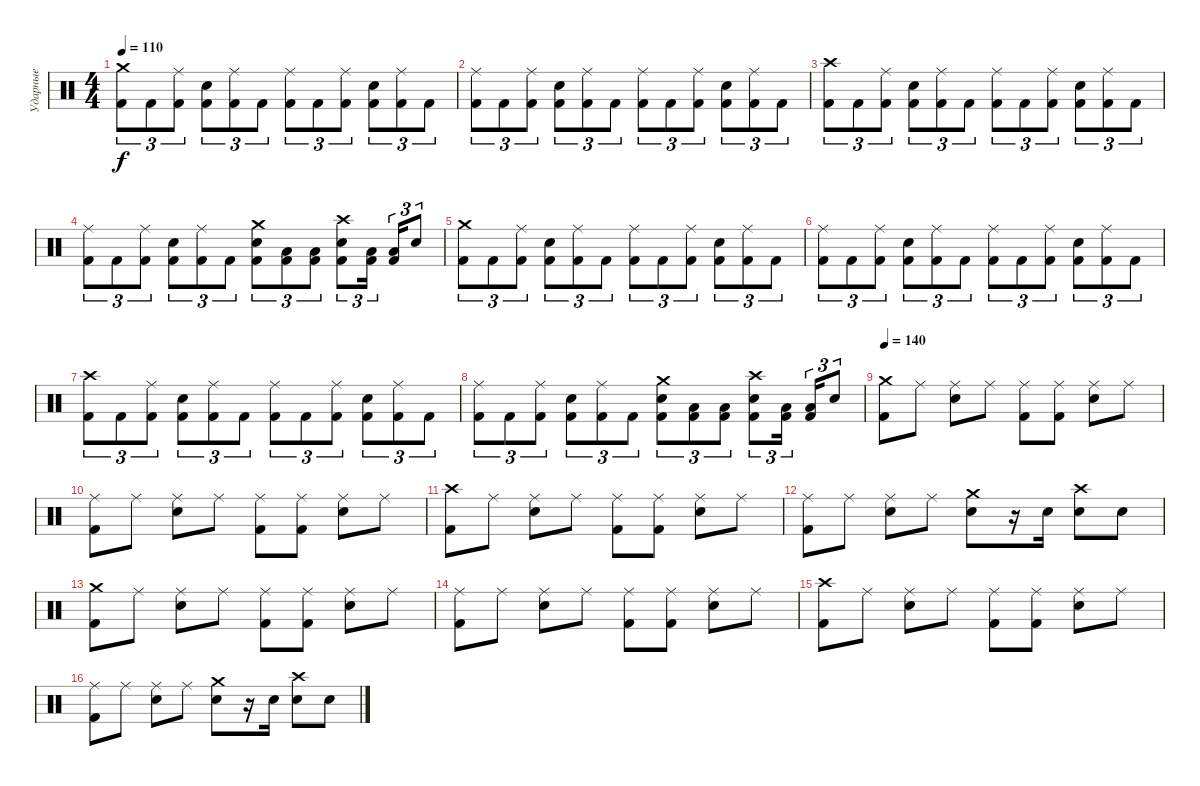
\track ("Ударные" "Ударные") {instrument percussion}
\staff {score}
\articulation defaults
\ts (4 4)
\tempo 110
\clef neutral
\ks c
("Crash medium (hit)" "Kick (hit) 2").8{tu (3 2) dy f} "Kick (hit) 2".8{tu (3 2)} ("Ride (middle)" "Kick (hit) 2").8{tu (3 2)} ("Electric Snare (hit)" "Kick (hit) 2").8{tu (3 2)} ("Ride (middle)" "Kick (hit) 2").8{tu (3 2)} "Kick (hit) 2".8{tu (3 2)} ("Ride (middle)" "Kick (hit) 2").8{tu (3 2)} "Kick (hit) 2".8{tu (3 2)} ("Ride (middle)" "Kick (hit) 2").8{tu (3 2)} ("Electric Snare (hit)" "Kick (hit) 2").8{tu (3 2)} ("Ride (middle)" "Kick (hit) 2").8{tu (3 2)} "Kick (hit) 2".8{tu (3 2)} |
("Ride (middle)" "Kick (hit) 2").8{tu (3 2)} "Kick (hit) 2".8{tu (3 2)} ("Ride (middle)" "Kick (hit) 2").8{tu (3 2)} ("Electric Snare (hit)" "Kick (hit) 2").8{tu (3 2)} ("Ride (middle)" "Kick (hit) 2").8{tu (3 2)} "Kick (hit) 2".8{tu (3 2)} ("Ride (middle)" "Kick (hit) 2").8{tu (3 2)} "Kick (hit) 2".8{tu (3 2)} ("Ride (middle)" "Kick (hit) 2").8{tu (3 2)} ("Electric Snare (hit)" "Kick (hit) 2").8{tu (3 2)} ("Ride (middle)" "Kick (hit) 2").8{tu (3 2)} "Kick (hit) 2".8{tu (3 2)} |
("Crash high (hit)" "Kick (hit) 2").8{tu (3 2)} "Kick (hit) 2".8{tu (3 2)} ("Ride (middle)" "Kick (hit) 2").8{tu (3 2)} ("Electric Snare (hit)" "Kick (hit) 2").8{tu (3 2)} ("Ride (middle)" "Kick (hit) 2").8{tu (3 2)} "Kick (hit) 2".8{tu (3 2)} ("Ride (middle)" "Kick (hit) 2").8{tu (3 2)} "Kick (hit) 2".8{tu (3 2)} ("Ride (middle)" "Kick (hit) 2").8{tu (3 2)} ("Electric Snare (hit)" "Kick (hit) 2").8{tu (3 2)} ("Ride (middle)" "Kick (hit) 2").8{tu (3 2)} "Kick (hit) 2".8{tu (3 2)} |
("Ride (middle)" "Kick (hit) 2").8{tu (3 2)} "Kick (hit) 2".8{tu (3 2)} ("Ride (middle)" "Kick (hit) 2").8{tu (3 2)} ("Electric Snare (hit)" "Kick (hit) 2").8{tu (3 2)} ("Ride (middle)" "Kick (hit) 2").8{tu (3 2)} "Kick (hit) 2".8{tu (3 2)} ("Crash medium (hit)" "Electric Snare (hit)" "Kick (hit) 2").8{tu (3 2)} ("Low Tom (hit)" "Kick (hit) 2").8{tu (3 2)} ("Low Tom (hit)" "Kick (hit) 2").8{tu (3 2)} ("Crash high (hit)" "Electric Snare (hit)" "Kick (hit) 2").8{tu (3 2)} ("Low Tom (hit)" "Kick (hit) 2").16{tu (3 2)} ("Low Tom (hit)" "Kick (hit) 2").16{tu (3 2)} "Electric Snare (hit)".8{tu (3 2)} |
("Crash medium (hit)" "Kick (hit) 2").8{tu (3 2)} "Kick (hit) 2".8{tu (3 2)} ("Ride (middle)" "Kick (hit) 2").8{tu (3 2)} ("Electric Snare (hit)" "Kick (hit) 2").8{tu (3 2)} ("Ride (middle)" "Kick (hit) 2").8{tu (3 2)} "Kick (hit) 2".8{tu (3 2)} ("Ride (middle)" "Kick (hit) 2").8{tu (3 2)} "Kick (hit) 2".8{tu (3 2)} ("Ride (middle)" "Kick (hit) 2").8{tu (3 2)} ("Electric Snare (hit)" "Kick (hit) 2").8{tu (3 2)} ("Ride (middle)" "Kick (hit) 2").8{tu (3 2)} "Kick (hit) 2".8{tu (3 2)} |
("Ride (middle)" "Kick (hit) 2").8{tu (3 2)} "Kick (hit) 2".8{tu (3 2)} ("Ride (middle)" "Kick (hit) 2").8{tu (3 2)} ("Electric Snare (hit)" "Kick (hit) 2").8{tu (3 2)} ("Ride (middle)" "Kick (hit) 2").8{tu (3 2)} "Kick (hit) 2".8{tu (3 2)} ("Ride (middle)" "Kick (hit) 2").8{tu (3 2)} "Kick (hit) 2".8{tu (3 2)} ("Ride (middle)" "Kick (hit) 2").8{tu (3 2)} ("Electric Snare (hit)" "Kick (hit) 2").8{tu (3 2)} ("Ride (middle)" "Kick (hit) 2").8{tu (3 2)} "Kick (hit) 2".8{tu (3 2)} |
("Crash high (hit)" "Kick (hit) 2").8{tu (3 2)} "Kick (hit) 2".8{tu (3 2)} ("Ride (middle)" "Kick (hit) 2").8{tu (3 2)} ("Electric Snare (hit)" "Kick (hit) 2").8{tu (3 2)} ("Ride (middle)" "Kick (hit) 2").8{tu (3 2)} "Kick (hit) 2".8{tu (3 2)} ("Ride (middle)" "Kick (hit) 2").8{tu (3 2)} "Kick (hit) 2".8{tu (3 2)} ("Ride (middle)" "Kick (hit) 2").8{tu (3 2)} ("Electric Snare (hit)" "Kick (hit) 2").8{tu (3 2)} ("Ride (middle)" "Kick (hit) 2").8{tu (3 2)} "Kick (hit) 2".8{tu (3 2)} |
("Ride (middle)" "Kick (hit) 2").8{tu (3 2)} "Kick (hit) 2".8{tu (3 2)} ("Ride (middle)" "Kick (hit) 2").8{tu (3 2)} ("Electric Snare (hit)" "Kick (hit) 2").8{tu (3 2)} ("Ride (middle)" "Kick (hit) 2").8{tu (3 2)} "Kick (hit) 2".8{tu (3 2)} ("Crash medium (hit)" "Electric Snare (hit)" "Kick (hit) 2").8{tu (3 2)} ("Low Tom (hit)" "Kick (hit) 2").8{tu (3 2)} ("Low Tom (hit)" "Kick (hit) 2").8{tu (3 2)} ("Crash high (hit)" "Electric Snare (hit)" "Kick (hit) 2").8{tu (3 2)} ("Low Tom (hit)" "Kick (hit) 2").16{tu (3 2)} ("Low Tom (hit)" "Kick (hit) 2").16{tu (3 2)} "Electric Snare (hit)".8{tu (3 2)} |
\tempo 140
("Crash medium (hit)" "Kick (hit) 2").8 "Ride (middle)".8 ("Ride (middle)" "Electric Snare (hit)").8 "Ride (middle)".8 ("Ride (middle)" "Kick (hit) 2").8 ("Ride (middle)" "Kick (hit) 2").8 ("Ride (middle)" "Electric Snare (hit)").8 "Ride (middle)".8 |
("Ride (middle)" "Kick (hit) 2").8 "Ride (middle)".8 ("Ride (middle)" "Electric Snare (hit)").8 "Ride (middle)".8 ("Ride (middle)" "Kick (hit) 2").8 ("Ride (middle)" "Kick (hit) 2").8 ("Ride (middle)" "Electric Snare (hit)").8 "Ride (middle)".8 |
("Crash high (hit)" "Kick (hit) 2").8 "Ride (middle)".8 ("Ride (middle)" "Electric Snare (hit)").8 "Ride (middle)".8 ("Ride (middle)" "Kick (hit) 2").8 ("Ride (middle)" "Kick (hit) 2").8 ("Ride (middle)" "Electric Snare (hit)").8 "Ride (middle)".8 |
("Ride (middle)" "Kick (hit) 2").8 "Ride (middle)".8 ("Ride (middle)" "Electric Snare (hit)").8 "Ride (middle)".8 ("Crash medium (hit)" "Electric Snare (hit)").8 r.16 "Electric Snare (hit)".16 ("Crash high (hit)" "Electric Snare (hit)").8 "Electric Snare (hit)".8 |
("Crash medium (hit)" "Kick (hit) 2").8 "Ride (middle)".8 ("Ride (middle)" "Electric Snare (hit)").8 "Ride (middle)".8 ("Ride (middle)" "Kick (hit) 2").8 ("Ride (middle)" "Kick (hit) 2").8 ("Ride (middle)" "Electric Snare (hit)").8 "Ride (middle)".8 |
("Ride (middle)" "Kick (hit) 2").8 "Ride (middle)".8 ("Ride (middle)" "Electric Snare (hit)").8 "Ride (middle)".8 ("Ride (middle)" "Kick (hit) 2").8 ("Ride (middle)" "Kick (hit) 2").8 ("Ride (middle)" "Electric Snare (hit)").8 "Ride (middle)".8 |
("Crash high (hit)" "Kick (hit) 2").8 "Ride (middle)".8 ("Ride (middle)" "Electric Snare (hit)").8 "Ride (middle)".8 ("Ride (middle)" "Kick (hit) 2").8 ("Ride (middle)" "Kick (hit) 2").8 ("Ride (middle)" "Electric Snare (hit)").8 "Ride (middle)".8 |
("Ride (middle)" "Kick (hit) 2").8 "Ride (middle)".8 ("Ride (middle)" "Electric Snare (hit)").8 "Ride (middle)".8 ("Crash medium (hit)" "Electric Snare (hit)").8 r.16 "Electric Snare (hit)".16 ("Crash high (hit)" "Electric Snare (hit)").8 "Electric Snare (hit)".8
